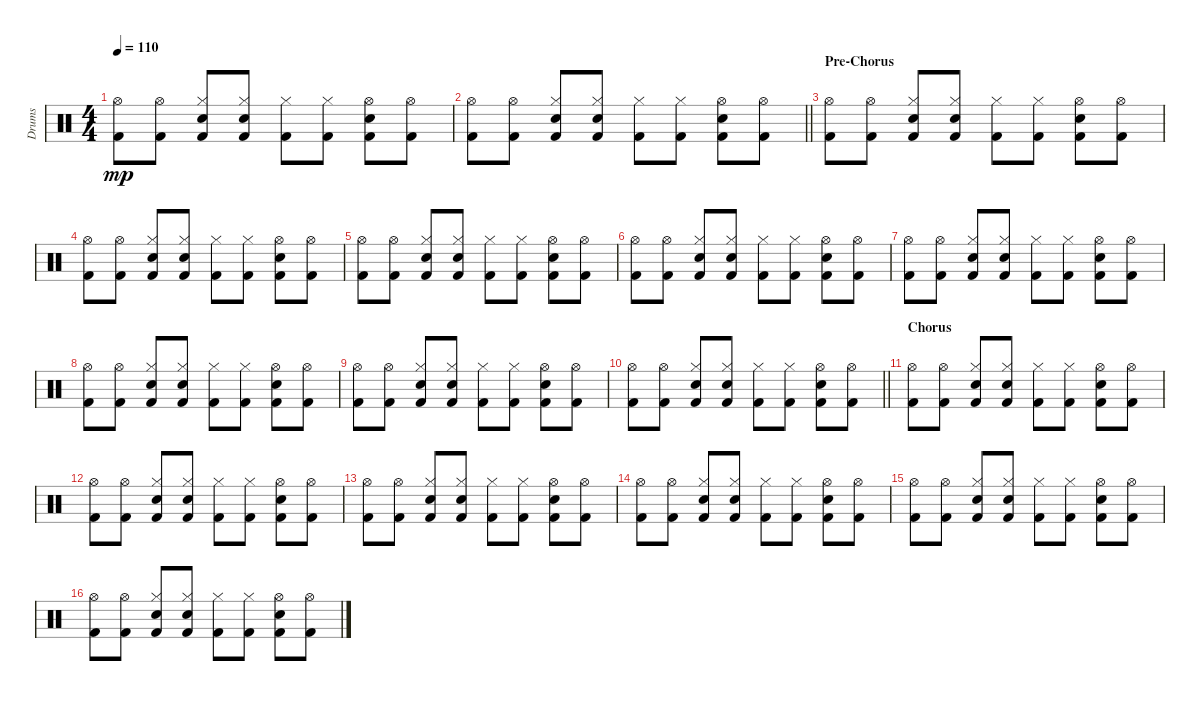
\track ("Drums" "Drums") {instrument percussion}
\staff {score}
\articulation defaults
\ts (4 4)
\tempo 110
\clef neutral
\ks c
("Hi-Hat (open)" "Kick (hit) 2").8{dy mp} ("Hi-Hat (open)" "Kick (hit) 2").8 ("Hi-Hat (closed)" "Electric Snare (hit)" "Kick (hit) 2").8 ("Hi-Hat (closed)" "Electric Snare (hit)" "Kick (hit) 2").8 ("Hi-Hat (closed)" "Kick (hit) 2").8 ("Hi-Hat (closed)" "Kick (hit) 2").8 ("Hi-Hat (open)" "Electric Snare (hit)" "Kick (hit) 2").8 ("Hi-Hat (open)" "Kick (hit) 2").8 |
\barLineRight lightlight
("Hi-Hat (open)" "Kick (hit) 2").8 ("Hi-Hat (open)" "Kick (hit) 2").8 ("Hi-Hat (closed)" "Electric Snare (hit)" "Kick (hit) 2").8 ("Hi-Hat (closed)" "Electric Snare (hit)" "Kick (hit) 2").8 ("Hi-Hat (closed)" "Kick (hit) 2").8 ("Hi-Hat (closed)" "Kick (hit) 2").8 ("Hi-Hat (open)" "Electric Snare (hit)" "Kick (hit) 2").8 ("Hi-Hat (open)" "Kick (hit) 2").8 |
\section ("" "Pre-Chorus")
("Hi-Hat (open)" "Kick (hit) 2").8 ("Hi-Hat (open)" "Kick (hit) 2").8 ("Hi-Hat (closed)" "Electric Snare (hit)" "Kick (hit) 2").8 ("Hi-Hat (closed)" "Electric Snare (hit)" "Kick (hit) 2").8 ("Hi-Hat (closed)" "Kick (hit) 2").8 ("Hi-Hat (closed)" "Kick (hit) 2").8 ("Hi-Hat (open)" "Electric Snare (hit)" "Kick (hit) 2").8 ("Hi-Hat (open)" "Kick (hit) 2").8 |
("Hi-Hat (open)" "Kick (hit) 2").8 ("Hi-Hat (open)" "Kick (hit) 2").8 ("Hi-Hat (closed)" "Electric Snare (hit)" "Kick (hit) 2").8 ("Hi-Hat (closed)" "Electric Snare (hit)" "Kick (hit) 2").8 ("Hi-Hat (closed)" "Kick (hit) 2").8 ("Hi-Hat (closed)" "Kick (hit) 2").8 ("Hi-Hat (open)" "Electric Snare (hit)" "Kick (hit) 2").8 ("Hi-Hat (open)" "Kick (hit) 2").8 |
("Hi-Hat (open)" "Kick (hit) 2").8 ("Hi-Hat (open)" "Kick (hit) 2").8 ("Hi-Hat (closed)" "Electric Snare (hit)" "Kick (hit) 2").8 ("Hi-Hat (closed)" "Electric Snare (hit)" "Kick (hit) 2").8 ("Hi-Hat (closed)" "Kick (hit) 2").8 ("Hi-Hat (closed)" "Kick (hit) 2").8 ("Hi-Hat (open)" "Electric Snare (hit)" "Kick (hit) 2").8 ("Hi-Hat (open)" "Kick (hit) 2").8 |
("Hi-Hat (open)" "Kick (hit) 2").8 ("Hi-Hat (open)" "Kick (hit) 2").8 ("Hi-Hat (closed)" "Electric Snare (hit)" "Kick (hit) 2").8 ("Hi-Hat (closed)" "Electric Snare (hit)" "Kick (hit) 2").8 ("Hi-Hat (closed)" "Kick (hit) 2").8 ("Hi-Hat (closed)" "Kick (hit) 2").8 ("Hi-Hat (open)" "Electric Snare (hit)" "Kick (hit) 2").8 ("Hi-Hat (open)" "Kick (hit) 2").8 |
("Hi-Hat (open)" "Kick (hit) 2").8 ("Hi-Hat (open)" "Kick (hit) 2").8 ("Hi-Hat (closed)" "Electric Snare (hit)" "Kick (hit) 2").8 ("Hi-Hat (closed)" "Electric Snare (hit)" "Kick (hit) 2").8 ("Hi-Hat (closed)" "Kick (hit) 2").8 ("Hi-Hat (closed)" "Kick (hit) 2").8 ("Hi-Hat (open)" "Electric Snare (hit)" "Kick (hit) 2").8 ("Hi-Hat (open)" "Kick (hit) 2").8 |
("Hi-Hat (open)" "Kick (hit) 2").8 ("Hi-Hat (open)" "Kick (hit) 2").8 ("Hi-Hat (closed)" "Electric Snare (hit)" "Kick (hit) 2").8 ("Hi-Hat (closed)" "Electric Snare (hit)" "Kick (hit) 2").8 ("Hi-Hat (closed)" "Kick (hit) 2").8 ("Hi-Hat (closed)" "Kick (hit) 2").8 ("Hi-Hat (open)" "Electric Snare (hit)" "Kick (hit) 2").8 ("Hi-Hat (open)" "Kick (hit) 2").8 |
("Hi-Hat (open)" "Kick (hit) 2").8 ("Hi-Hat (open)" "Kick (hit) 2").8 ("Hi-Hat (closed)" "Electric Snare (hit)" "Kick (hit) 2").8 ("Hi-Hat (closed)" "Electric Snare (hit)" "Kick (hit) 2").8 ("Hi-Hat (closed)" "Kick (hit) 2").8 ("Hi-Hat (closed)" "Kick (hit) 2").8 ("Hi-Hat (open)" "Electric Snare (hit)" "Kick (hit) 2").8 ("Hi-Hat (open)" "Kick (hit) 2").8 |
\barLineRight lightlight
("Hi-Hat (open)" "Kick (hit) 2").8 ("Hi-Hat (open)" "Kick (hit) 2").8 ("Hi-Hat (closed)" "Electric Snare (hit)" "Kick (hit) 2").8 ("Hi-Hat (closed)" "Electric Snare (hit)" "Kick (hit) 2").8 ("Hi-Hat (closed)" "Kick (hit) 2").8 ("Hi-Hat (closed)" "Kick (hit) 2").8 ("Hi-Hat (open)" "Electric Snare (hit)" "Kick (hit) 2").8 ("Hi-Hat (open)" "Kick (hit) 2").8 |
\section ("" "Chorus")
("Hi-Hat (open)" "Kick (hit) 2").8 ("Hi-Hat (open)" "Kick (hit) 2").8 ("Hi-Hat (closed)" "Electric Snare (hit)" "Kick (hit) 2").8 ("Hi-Hat (closed)" "Electric Snare (hit)" "Kick (hit) 2").8 ("Hi-Hat (closed)" "Kick (hit) 2").8 ("Hi-Hat (closed)" "Kick (hit) 2").8 ("Hi-Hat (open)" "Electric Snare (hit)" "Kick (hit) 2").8 ("Hi-Hat (open)" "Kick (hit) 2").8 |
("Hi-Hat (open)" "Kick (hit) 2").8 ("Hi-Hat (open)" "Kick (hit) 2").8 ("Hi-Hat (closed)" "Electric Snare (hit)" "Kick (hit) 2").8 ("Hi-Hat (closed)" "Electric Snare (hit)" "Kick (hit) 2").8 ("Hi-Hat (closed)" "Kick (hit) 2").8 ("Hi-Hat (closed)" "Kick (hit) 2").8 ("Hi-Hat (open)" "Electric Snare (hit)" "Kick (hit) 2").8 ("Hi-Hat (open)" "Kick (hit) 2").8 |
("Hi-Hat (open)" "Kick (hit) 2").8 ("Hi-Hat (open)" "Kick (hit) 2").8 ("Hi-Hat (closed)" "Electric Snare (hit)" "Kick (hit) 2").8 ("Hi-Hat (closed)" "Electric Snare (hit)" "Kick (hit) 2").8 ("Hi-Hat (closed)" "Kick (hit) 2").8 ("Hi-Hat (closed)" "Kick (hit) 2").8 ("Hi-Hat (open)" "Electric Snare (hit)" "Kick (hit) 2").8 ("Hi-Hat (open)" "Kick (hit) 2").8 |
("Hi-Hat (open)" "Kick (hit) 2").8 ("Hi-Hat (open)" "Kick (hit) 2").8 ("Hi-Hat (closed)" "Electric Snare (hit)" "Kick (hit) 2").8 ("Hi-Hat (closed)" "Electric Snare (hit)" "Kick (hit) 2").8 ("Hi-Hat (closed)" "Kick (hit) 2").8 ("Hi-Hat (closed)" "Kick (hit) 2").8 ("Hi-Hat (open)" "Electric Snare (hit)" "Kick (hit) 2").8 ("Hi-Hat (open)" "Kick (hit) 2").8 |
("Hi-Hat (open)" "Kick (hit) 2").8 ("Hi-Hat (open)" "Kick (hit) 2").8 ("Hi-Hat (closed)" "Electric Snare (hit)" "Kick (hit) 2").8 ("Hi-Hat (closed)" "Electric Snare (hit)" "Kick (hit) 2").8 ("Hi-Hat (closed)" "Kick (hit) 2").8 ("Hi-Hat (closed)" "Kick (hit) 2").8 ("Hi-Hat (open)" "Electric Snare (hit)" "Kick (hit) 2").8 ("Hi-Hat (open)" "Kick (hit) 2").8 |
("Hi-Hat (open)" "Kick (hit) 2").8 ("Hi-Hat (open)" "Kick (hit) 2").8 ("Hi-Hat (closed)" "Electric Snare (hit)" "Kick (hit) 2").8 ("Hi-Hat (closed)" "Electric Snare (hit)" "Kick (hit) 2").8 ("Hi-Hat (closed)" "Kick (hit) 2").8 ("Hi-Hat (closed)" "Kick (hit) 2").8 ("Hi-Hat (open)" "Electric Snare (hit)" "Kick (hit) 2").8 ("Hi-Hat (open)" "Kick (hit) 2").8
